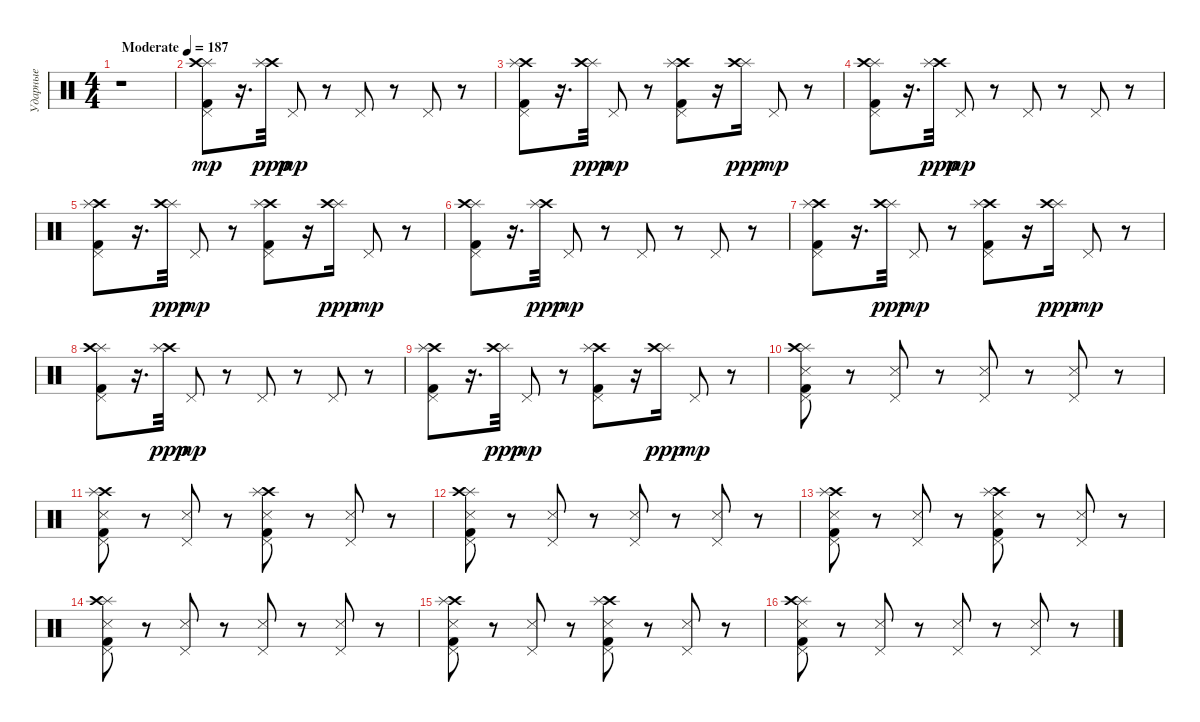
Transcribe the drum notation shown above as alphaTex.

\track ("Ударные" "Ударные") {instrument percussion}
\staff {score}
\articulation defaults
\ts (4 4)
\tempo (187 "Moderate")
\clef neutral
\ks c
r.1{dy mp} |
("Splash (hit)" "Crash high (hit)" "Pedal Hi-Hat (hit)" "Kick (hit) 2").8 r.16{d} ("Crash high (hit)" "Splash (hit)").32{dy ppp} "Pedal Hi-Hat (hit)".8{dy mp} r.8 "Pedal Hi-Hat (hit)".8 r.8 "Pedal Hi-Hat (hit)".8 r.8 |
("Crash high (hit)" "Splash (hit)" "Pedal Hi-Hat (hit)" "Kick (hit) 2").8 r.16{d} ("Splash (hit)" "Crash high (hit)").32{dy ppp} "Pedal Hi-Hat (hit)".8{dy mp} r.8 ("Crash high (hit)" "Splash (hit)" "Pedal Hi-Hat (hit)" "Kick (hit) 2").8 r.16 ("Splash (hit)" "Crash high (hit)").16{dy ppp} "Pedal Hi-Hat (hit)".8{dy mp} r.8 |
("Splash (hit)" "Crash high (hit)" "Pedal Hi-Hat (hit)" "Kick (hit) 2").8 r.16{d} ("Crash high (hit)" "Splash (hit)").32{dy ppp} "Pedal Hi-Hat (hit)".8{dy mp} r.8 "Pedal Hi-Hat (hit)".8 r.8 "Pedal Hi-Hat (hit)".8 r.8 |
("Crash high (hit)" "Splash (hit)" "Pedal Hi-Hat (hit)" "Kick (hit) 2").8 r.16{d} ("Splash (hit)" "Crash high (hit)").32{dy ppp} "Pedal Hi-Hat (hit)".8{dy mp} r.8 ("Crash high (hit)" "Splash (hit)" "Pedal Hi-Hat (hit)" "Kick (hit) 2").8 r.16 ("Splash (hit)" "Crash high (hit)").16{dy ppp} "Pedal Hi-Hat (hit)".8{dy mp} r.8 |
("Splash (hit)" "Crash high (hit)" "Pedal Hi-Hat (hit)" "Kick (hit) 2").8 r.16{d} ("Crash high (hit)" "Splash (hit)").32{dy ppp} "Pedal Hi-Hat (hit)".8{dy mp} r.8 "Pedal Hi-Hat (hit)".8 r.8 "Pedal Hi-Hat (hit)".8 r.8 |
("Crash high (hit)" "Splash (hit)" "Pedal Hi-Hat (hit)" "Kick (hit) 2").8 r.16{d} ("Splash (hit)" "Crash high (hit)").32{dy ppp} "Pedal Hi-Hat (hit)".8{dy mp} r.8 ("Crash high (hit)" "Splash (hit)" "Pedal Hi-Hat (hit)" "Kick (hit) 2").8 r.16 ("Splash (hit)" "Crash high (hit)").16{dy ppp} "Pedal Hi-Hat (hit)".8{dy mp} r.8 |
("Splash (hit)" "Crash high (hit)" "Pedal Hi-Hat (hit)" "Kick (hit) 2").8 r.16{d} ("Crash high (hit)" "Splash (hit)").32{dy ppp} "Pedal Hi-Hat (hit)".8{dy mp} r.8 "Pedal Hi-Hat (hit)".8 r.8 "Pedal Hi-Hat (hit)".8 r.8 |
("Crash high (hit)" "Splash (hit)" "Pedal Hi-Hat (hit)" "Kick (hit) 2").8 r.16{d} ("Splash (hit)" "Crash high (hit)").32{dy ppp} "Pedal Hi-Hat (hit)".8{dy mp} r.8 ("Crash high (hit)" "Splash (hit)" "Pedal Hi-Hat (hit)" "Kick (hit) 2").8 r.16 ("Splash (hit)" "Crash high (hit)").16{dy ppp} "Pedal Hi-Hat (hit)".8{dy mp} r.8 |
("Snare (side stick) 3" "Splash (hit)" "Crash high (hit)" "Pedal Hi-Hat (hit)" "Kick (hit) 2").8 r.8 ("Snare (side stick) 3" "Pedal Hi-Hat (hit)").8 r.8 ("Snare (side stick) 3" "Pedal Hi-Hat (hit)").8 r.8 ("Snare (side stick) 3" "Pedal Hi-Hat (hit)").8 r.8 |
("Snare (side stick) 3" "Crash high (hit)" "Splash (hit)" "Pedal Hi-Hat (hit)" "Kick (hit) 2").8 r.8 ("Snare (side stick) 3" "Pedal Hi-Hat (hit)").8 r.8 ("Snare (side stick) 3" "Crash high (hit)" "Splash (hit)" "Pedal Hi-Hat (hit)" "Kick (hit) 2").8 r.8 ("Snare (side stick) 3" "Pedal Hi-Hat (hit)").8 r.8 |
("Snare (side stick) 3" "Splash (hit)" "Crash high (hit)" "Pedal Hi-Hat (hit)" "Kick (hit) 2").8 r.8 ("Snare (side stick) 3" "Pedal Hi-Hat (hit)").8 r.8 ("Snare (side stick) 3" "Pedal Hi-Hat (hit)").8 r.8 ("Snare (side stick) 3" "Pedal Hi-Hat (hit)").8 r.8 |
("Snare (side stick) 3" "Crash high (hit)" "Splash (hit)" "Pedal Hi-Hat (hit)" "Kick (hit) 2").8 r.8 ("Snare (side stick) 3" "Pedal Hi-Hat (hit)").8 r.8 ("Snare (side stick) 3" "Crash high (hit)" "Splash (hit)" "Pedal Hi-Hat (hit)" "Kick (hit) 2").8 r.8 ("Snare (side stick) 3" "Pedal Hi-Hat (hit)").8 r.8 |
("Snare (side stick) 3" "Splash (hit)" "Crash high (hit)" "Pedal Hi-Hat (hit)" "Kick (hit) 2").8 r.8 ("Snare (side stick) 3" "Pedal Hi-Hat (hit)").8 r.8 ("Snare (side stick) 3" "Pedal Hi-Hat (hit)").8 r.8 ("Snare (side stick) 3" "Pedal Hi-Hat (hit)").8 r.8 |
("Snare (side stick) 3" "Crash high (hit)" "Splash (hit)" "Pedal Hi-Hat (hit)" "Kick (hit) 2").8 r.8 ("Snare (side stick) 3" "Pedal Hi-Hat (hit)").8 r.8 ("Snare (side stick) 3" "Crash high (hit)" "Splash (hit)" "Pedal Hi-Hat (hit)" "Kick (hit) 2").8 r.8 ("Snare (side stick) 3" "Pedal Hi-Hat (hit)").8 r.8 |
("Snare (side stick) 3" "Splash (hit)" "Crash high (hit)" "Pedal Hi-Hat (hit)" "Kick (hit) 2").8 r.8 ("Snare (side stick) 3" "Pedal Hi-Hat (hit)").8 r.8 ("Snare (side stick) 3" "Pedal Hi-Hat (hit)").8 r.8 ("Snare (side stick) 3" "Pedal Hi-Hat (hit)").8 r.8
